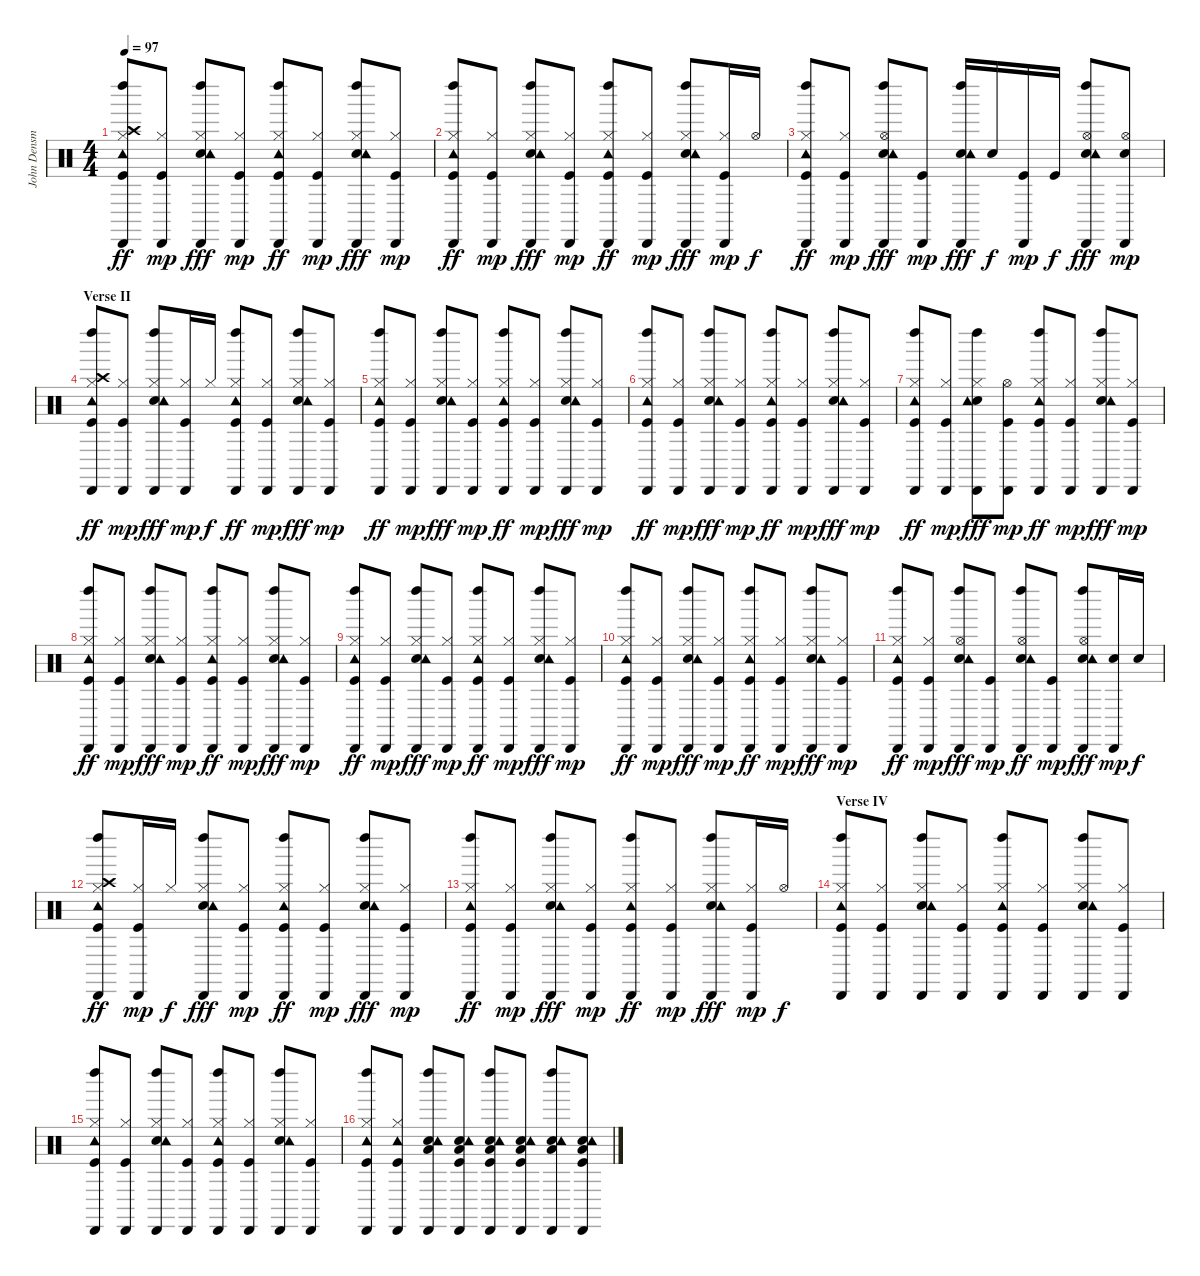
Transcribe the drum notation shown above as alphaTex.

\track ("John Densmore" "John Densm") {instrument percussion}
\staff {score}
\articulation defaults
\ts (4 4)
\tempo 97
\clef neutral
\ks c
("Kick (hit)" "Hi-Hat (closed)" "Crash high (hit)" "Tambourine (hit)" "Left Maraca (hit)" "Cabasa (hit)").8{dy ff} ("Kick (hit)" "Hi-Hat (closed)" "Cabasa (hit)").8{dy mp} ("Snare (hit) 2" "Hi-Hat (closed)" "Tambourine (hit)" "Left Maraca (hit)" "Cabasa (hit)").8{dy fff} ("Kick (hit)" "Hi-Hat (closed)" "Cabasa (hit)").8{dy mp} ("Kick (hit)" "Hi-Hat (closed)" "Tambourine (hit)" "Left Maraca (hit)" "Cabasa (hit)").8{dy ff} ("Kick (hit)" "Hi-Hat (closed)" "Cabasa (hit)").8{dy mp} ("Snare (hit) 2" "Hi-Hat (closed)" "Tambourine (hit)" "Left Maraca (hit)" "Cabasa (hit)").8{dy fff} ("Kick (hit)" "Hi-Hat (closed)" "Cabasa (hit)").8{dy mp} |
("Kick (hit)" "Hi-Hat (closed)" "Tambourine (hit)" "Left Maraca (hit)" "Cabasa (hit)").8{dy ff} ("Kick (hit)" "Hi-Hat (closed)" "Cabasa (hit)").8{dy mp} ("Snare (hit) 2" "Hi-Hat (closed)" "Tambourine (hit)" "Left Maraca (hit)" "Cabasa (hit)").8{dy fff} ("Kick (hit)" "Hi-Hat (closed)" "Cabasa (hit)").8{dy mp} ("Kick (hit)" "Hi-Hat (closed)" "Tambourine (hit)" "Left Maraca (hit)" "Cabasa (hit)").8{dy ff} ("Kick (hit)" "Hi-Hat (closed)" "Cabasa (hit)").8{dy mp} ("Snare (hit) 2" "Hi-Hat (closed)" "Tambourine (hit)" "Left Maraca (hit)" "Cabasa (hit)").8{dy fff} ("Kick (hit)" "Hi-Hat (closed)" "Cabasa (hit)").16{dy mp} "Hi-Hat (open)".16{dy f} |
("Kick (hit)" "Hi-Hat (closed)" "Tambourine (hit)" "Left Maraca (hit)" "Cabasa (hit)").8{dy ff} ("Kick (hit)" "Hi-Hat (closed)" "Cabasa (hit)").8{dy mp} ("Snare (hit) 2" "Hi-Hat (open)" "Tambourine (hit)" "Left Maraca (hit)" "Cabasa (hit)").8{dy fff} ("Kick (hit)" "Cabasa (hit)").8{dy mp} ("Snare (hit) 2" "Tambourine (hit)" "Left Maraca (hit)" "Cabasa (hit)").16{dy fff} "Snare (hit) 2".16{dy f} ("Kick (hit)" "Cabasa (hit)").16{dy mp} "Kick (hit)".16{dy f} ("Snare (hit) 2" "Hi-Hat (open)" "Tambourine (hit)" "Left Maraca (hit)" "Cabasa (hit)").8{dy fff} ("Snare (hit) 2" "Hi-Hat (open)" "Cabasa (hit)").8{dy mp} |
\section ("" "Verse II")
("Kick (hit)" "Hi-Hat (closed)" "Crash high (hit)" "Tambourine (hit)" "Left Maraca (hit)" "Cabasa (hit)").8{dy ff} ("Kick (hit)" "Hi-Hat (closed)" "Cabasa (hit)").8{dy mp} ("Snare (hit) 2" "Hi-Hat (closed)" "Tambourine (hit)" "Left Maraca (hit)" "Cabasa (hit)").8{dy fff} ("Kick (hit)" "Hi-Hat (closed)" "Cabasa (hit)").16{dy mp} "Hi-Hat (closed)".16{dy f} ("Kick (hit)" "Hi-Hat (closed)" "Tambourine (hit)" "Left Maraca (hit)" "Cabasa (hit)").8{dy ff} ("Kick (hit)" "Hi-Hat (closed)" "Cabasa (hit)").8{dy mp} ("Snare (hit) 2" "Hi-Hat (closed)" "Tambourine (hit)" "Left Maraca (hit)" "Cabasa (hit)").8{dy fff} ("Kick (hit)" "Hi-Hat (closed)" "Cabasa (hit)").8{dy mp} |
("Kick (hit)" "Hi-Hat (closed)" "Tambourine (hit)" "Left Maraca (hit)" "Cabasa (hit)").8{dy ff} ("Kick (hit)" "Hi-Hat (closed)" "Cabasa (hit)").8{dy mp} ("Snare (hit) 2" "Hi-Hat (closed)" "Tambourine (hit)" "Left Maraca (hit)" "Cabasa (hit)").8{dy fff} ("Kick (hit)" "Hi-Hat (closed)" "Cabasa (hit)").8{dy mp} ("Kick (hit)" "Hi-Hat (closed)" "Tambourine (hit)" "Left Maraca (hit)" "Cabasa (hit)").8{dy ff} ("Kick (hit)" "Hi-Hat (closed)" "Cabasa (hit)").8{dy mp} ("Snare (hit) 2" "Hi-Hat (closed)" "Tambourine (hit)" "Left Maraca (hit)" "Cabasa (hit)").8{dy fff} ("Kick (hit)" "Hi-Hat (closed)" "Cabasa (hit)").8{dy mp} |
("Kick (hit)" "Hi-Hat (closed)" "Tambourine (hit)" "Left Maraca (hit)" "Cabasa (hit)").8{dy ff} ("Kick (hit)" "Hi-Hat (closed)" "Cabasa (hit)").8{dy mp} ("Snare (hit) 2" "Hi-Hat (closed)" "Tambourine (hit)" "Left Maraca (hit)" "Cabasa (hit)").8{dy fff} ("Kick (hit)" "Hi-Hat (closed)" "Cabasa (hit)").8{dy mp} ("Kick (hit)" "Hi-Hat (closed)" "Tambourine (hit)" "Left Maraca (hit)" "Cabasa (hit)").8{dy ff} ("Kick (hit)" "Hi-Hat (closed)" "Cabasa (hit)").8{dy mp} ("Snare (hit) 2" "Hi-Hat (closed)" "Tambourine (hit)" "Left Maraca (hit)" "Cabasa (hit)").8{dy fff} ("Kick (hit)" "Hi-Hat (closed)" "Cabasa (hit)").8{dy mp} |
("Kick (hit)" "Hi-Hat (closed)" "Tambourine (hit)" "Left Maraca (hit)" "Cabasa (hit)").8{dy ff} ("Kick (hit)" "Hi-Hat (closed)" "Cabasa (hit)").8{dy mp} ("Snare (hit) 2" "Hi-Hat (closed)" "Tambourine (hit)" "Left Maraca (hit)" "Cabasa (hit)").8{dy fff} ("Kick (hit)" "Hi-Hat (open)" "Cabasa (hit)").8{dy mp} ("Kick (hit)" "Hi-Hat (closed)" "Tambourine (hit)" "Left Maraca (hit)" "Cabasa (hit)").8{dy ff} ("Kick (hit)" "Hi-Hat (closed)" "Cabasa (hit)").8{dy mp} ("Snare (hit) 2" "Hi-Hat (closed)" "Tambourine (hit)" "Left Maraca (hit)" "Cabasa (hit)").8{dy fff} ("Kick (hit)" "Hi-Hat (closed)" "Cabasa (hit)").8{dy mp} |
("Kick (hit)" "Hi-Hat (closed)" "Tambourine (hit)" "Left Maraca (hit)" "Cabasa (hit)").8{dy ff} ("Kick (hit)" "Hi-Hat (closed)" "Cabasa (hit)").8{dy mp} ("Snare (hit) 2" "Hi-Hat (closed)" "Tambourine (hit)" "Left Maraca (hit)" "Cabasa (hit)").8{dy fff} ("Kick (hit)" "Hi-Hat (closed)" "Cabasa (hit)").8{dy mp} ("Kick (hit)" "Hi-Hat (closed)" "Tambourine (hit)" "Left Maraca (hit)" "Cabasa (hit)").8{dy ff} ("Kick (hit)" "Hi-Hat (closed)" "Cabasa (hit)").8{dy mp} ("Snare (hit) 2" "Hi-Hat (closed)" "Tambourine (hit)" "Left Maraca (hit)" "Cabasa (hit)").8{dy fff} ("Kick (hit)" "Hi-Hat (closed)" "Cabasa (hit)").8{dy mp} |
("Kick (hit)" "Hi-Hat (closed)" "Tambourine (hit)" "Left Maraca (hit)" "Cabasa (hit)").8{dy ff} ("Kick (hit)" "Hi-Hat (closed)" "Cabasa (hit)").8{dy mp} ("Snare (hit) 2" "Hi-Hat (closed)" "Tambourine (hit)" "Left Maraca (hit)" "Cabasa (hit)").8{dy fff} ("Kick (hit)" "Hi-Hat (closed)" "Cabasa (hit)").8{dy mp} ("Kick (hit)" "Hi-Hat (closed)" "Tambourine (hit)" "Left Maraca (hit)" "Cabasa (hit)").8{dy ff} ("Kick (hit)" "Hi-Hat (closed)" "Cabasa (hit)").8{dy mp} ("Snare (hit) 2" "Hi-Hat (closed)" "Tambourine (hit)" "Left Maraca (hit)" "Cabasa (hit)").8{dy fff} ("Kick (hit)" "Hi-Hat (closed)" "Cabasa (hit)").8{dy mp} |
("Kick (hit)" "Hi-Hat (closed)" "Tambourine (hit)" "Left Maraca (hit)" "Cabasa (hit)").8{dy ff} ("Kick (hit)" "Hi-Hat (closed)" "Cabasa (hit)").8{dy mp} ("Snare (hit) 2" "Hi-Hat (closed)" "Tambourine (hit)" "Left Maraca (hit)" "Cabasa (hit)").8{dy fff} ("Kick (hit)" "Hi-Hat (closed)" "Cabasa (hit)").8{dy mp} ("Kick (hit)" "Hi-Hat (closed)" "Tambourine (hit)" "Left Maraca (hit)" "Cabasa (hit)").8{dy ff} ("Kick (hit)" "Hi-Hat (closed)" "Cabasa (hit)").8{dy mp} ("Snare (hit) 2" "Hi-Hat (closed)" "Tambourine (hit)" "Left Maraca (hit)" "Cabasa (hit)").8{dy fff} ("Kick (hit)" "Hi-Hat (closed)" "Cabasa (hit)").8{dy mp} |
("Kick (hit)" "Hi-Hat (closed)" "Tambourine (hit)" "Left Maraca (hit)" "Cabasa (hit)").8{dy ff} ("Kick (hit)" "Hi-Hat (closed)" "Cabasa (hit)").8{dy mp} ("Snare (hit) 2" "Hi-Hat (open)" "Tambourine (hit)" "Left Maraca (hit)" "Cabasa (hit)").8{dy fff} ("Kick (hit)" "Cabasa (hit)").8{dy mp} ("Snare (hit) 2" "Hi-Hat (open)" "Tambourine (hit)" "Left Maraca (hit)" "Cabasa (hit)").8{dy ff} ("Kick (hit)" "Cabasa (hit)").8{dy mp} ("Snare (hit) 2" "Hi-Hat (open)" "Tambourine (hit)" "Left Maraca (hit)" "Cabasa (hit)").8{dy fff} ("Snare (hit) 2" "Cabasa (hit)").16{dy mp} "Snare (hit) 2".16{dy f} |
("Kick (hit)" "Hi-Hat (closed)" "Crash high (hit)" "Tambourine (hit)" "Left Maraca (hit)" "Cabasa (hit)").8{dy ff} ("Kick (hit)" "Hi-Hat (closed)" "Cabasa (hit)").16{dy mp} "Hi-Hat (closed)".16{dy f} ("Snare (hit) 2" "Hi-Hat (closed)" "Tambourine (hit)" "Left Maraca (hit)" "Cabasa (hit)").8{dy fff} ("Kick (hit)" "Hi-Hat (closed)" "Cabasa (hit)").8{dy mp} ("Kick (hit)" "Hi-Hat (closed)" "Tambourine (hit)" "Left Maraca (hit)" "Cabasa (hit)").8{dy ff} ("Kick (hit)" "Hi-Hat (closed)" "Cabasa (hit)").8{dy mp} ("Snare (hit) 2" "Hi-Hat (closed)" "Tambourine (hit)" "Left Maraca (hit)" "Cabasa (hit)").8{dy fff} ("Kick (hit)" "Hi-Hat (closed)" "Cabasa (hit)").8{dy mp} |
("Kick (hit)" "Hi-Hat (closed)" "Tambourine (hit)" "Left Maraca (hit)" "Cabasa (hit)").8{dy ff} ("Kick (hit)" "Hi-Hat (closed)" "Cabasa (hit)").8{dy mp} ("Snare (hit) 2" "Hi-Hat (closed)" "Tambourine (hit)" "Left Maraca (hit)" "Cabasa (hit)").8{dy fff} ("Kick (hit)" "Hi-Hat (closed)" "Cabasa (hit)").8{dy mp} ("Kick (hit)" "Hi-Hat (closed)" "Tambourine (hit)" "Left Maraca (hit)" "Cabasa (hit)").8{dy ff} ("Kick (hit)" "Hi-Hat (closed)" "Cabasa (hit)").8{dy mp} ("Snare (hit) 2" "Hi-Hat (closed)" "Tambourine (hit)" "Left Maraca (hit)" "Cabasa (hit)").8{dy fff} ("Kick (hit)" "Hi-Hat (closed)" "Cabasa (hit)").16{dy mp} "Hi-Hat (open)".16{dy f} |
\section ("" "Verse IV")
("Kick (hit)" "Hi-Hat (closed)" "Tambourine (hit)" "Left Maraca (hit)" "Cabasa (hit)").8 ("Kick (hit)" "Hi-Hat (closed)" "Cabasa (hit)").8 ("Snare (hit) 2" "Hi-Hat (closed)" "Tambourine (hit)" "Left Maraca (hit)" "Cabasa (hit)").8 ("Kick (hit)" "Hi-Hat (closed)" "Cabasa (hit)").8 ("Kick (hit)" "Hi-Hat (closed)" "Tambourine (hit)" "Left Maraca (hit)" "Cabasa (hit)").8 ("Kick (hit)" "Hi-Hat (closed)" "Cabasa (hit)").8 ("Snare (hit) 2" "Hi-Hat (closed)" "Tambourine (hit)" "Left Maraca (hit)" "Cabasa (hit)").8 ("Kick (hit)" "Hi-Hat (closed)" "Cabasa (hit)").8 |
("Kick (hit)" "Hi-Hat (closed)" "Tambourine (hit)" "Left Maraca (hit)" "Cabasa (hit)").8 ("Kick (hit)" "Hi-Hat (closed)" "Cabasa (hit)").8 ("Snare (hit) 2" "Hi-Hat (closed)" "Tambourine (hit)" "Left Maraca (hit)" "Cabasa (hit)").8 ("Kick (hit)" "Hi-Hat (closed)" "Cabasa (hit)").8 ("Kick (hit)" "Hi-Hat (closed)" "Tambourine (hit)" "Left Maraca (hit)" "Cabasa (hit)").8 ("Kick (hit)" "Hi-Hat (closed)" "Cabasa (hit)").8 ("Snare (hit) 2" "Hi-Hat (closed)" "Tambourine (hit)" "Left Maraca (hit)" "Cabasa (hit)").8 ("Kick (hit)" "Hi-Hat (closed)" "Cabasa (hit)").8 |
("Kick (hit)" "Hi-Hat (closed)" "Tambourine (hit)" "Left Maraca (hit)" "Cabasa (hit)").8 ("Kick (hit)" "Hi-Hat (closed)" "Tambourine (hit)" "Cabasa (hit)").8 ("Snare (hit) 2" "Low Floor Tom (hit)" "Tambourine (hit)" "Left Maraca (hit)" "Cabasa (hit)").8 ("Kick (hit)" "Snare (hit) 2" "Low Floor Tom (hit)" "Tambourine (hit)" "Cabasa (hit)").8 ("Kick (hit)" "Snare (hit) 2" "Low Floor Tom (hit)" "Tambourine (hit)" "Left Maraca (hit)" "Cabasa (hit)").8 ("Kick (hit)" "Snare (hit) 2" "Low Floor Tom (hit)" "Tambourine (hit)" "Cabasa (hit)").8 ("Snare (hit) 2" "Low Floor Tom (hit)" "Tambourine (hit)" "Left Maraca (hit)" "Cabasa (hit)").8 ("Kick (hit)" "Snare (hit) 2" "Low Floor Tom (hit)" "Tambourine (hit)" "Cabasa (hit)").8
